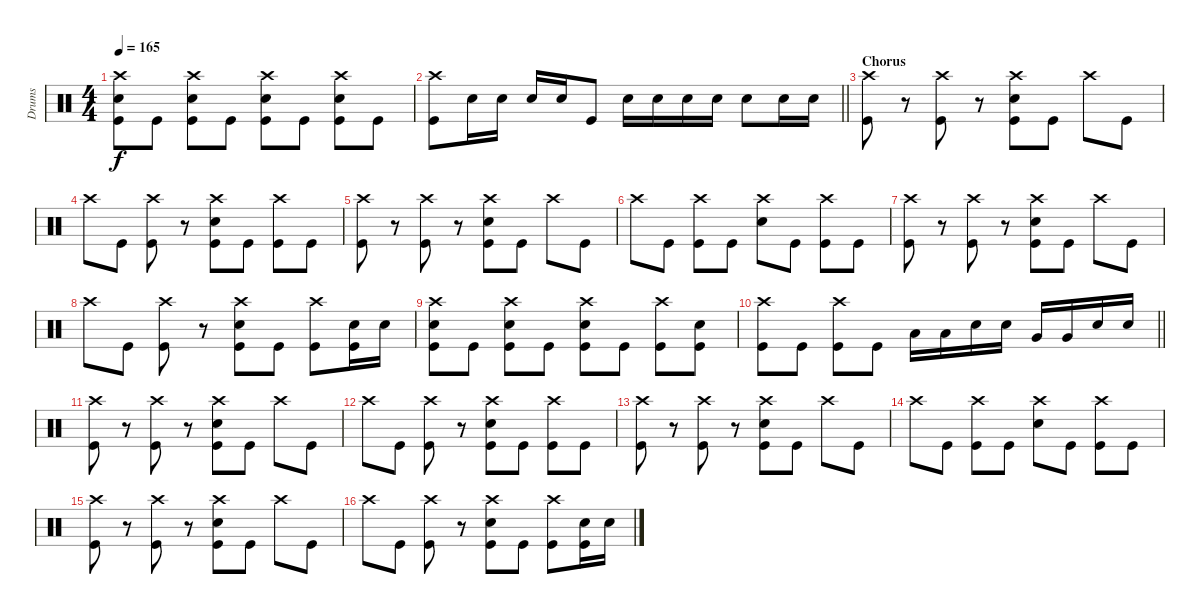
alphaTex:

\track ("Drums" "Drums") {instrument percussion}
\staff {score}
\articulation defaults
\ts (4 4)
\tempo 165
\clef neutral
\ks c
("Crash high (hit)" "Snare (hit) 2" "Kick (hit)").8{dy f} "Kick (hit)".8 ("Crash high (hit)" "Snare (hit) 2" "Kick (hit)").8 "Kick (hit)".8 ("Crash high (hit)" "Snare (hit) 2" "Kick (hit)").8 "Kick (hit)".8 ("Crash high (hit)" "Snare (hit) 2" "Kick (hit)").8 "Kick (hit)".8 |
\barLineRight lightlight
("Crash high (hit)" "Kick (hit)").8 "Snare (hit) 2".16 "Snare (hit) 2".16 "Snare (hit) 2".16 "Snare (hit) 2".16 "Kick (hit)".8 "Snare (hit) 2".16 "Snare (hit) 2".16 "Snare (hit) 2".16 "Snare (hit) 2".16 "Snare (hit) 2".8 "Snare (hit) 2".16 "Snare (hit) 2".16 |
\section ("" "Chorus")
("Crash high (hit)" "Kick (hit)").8 r.8 ("Crash high (hit)" "Kick (hit)").8 r.8 ("Crash high (hit)" "Snare (hit) 2" "Kick (hit)").8 "Kick (hit)".8 "Crash high (hit)".8 "Kick (hit)".8 |
"Crash high (hit)".8 "Kick (hit)".8 ("Crash high (hit)" "Kick (hit)").8 r.8 ("Crash high (hit)" "Snare (hit) 2" "Kick (hit)").8 "Kick (hit)".8 ("Crash high (hit)" "Kick (hit)").8 "Kick (hit)".8 |
("Crash high (hit)" "Kick (hit)").8 r.8 ("Crash high (hit)" "Kick (hit)").8 r.8 ("Crash high (hit)" "Snare (hit) 2" "Kick (hit)").8 "Kick (hit)".8 "Crash high (hit)".8 "Kick (hit)".8 |
"Crash high (hit)".8 "Kick (hit)".8 ("Crash high (hit)" "Kick (hit)").8 "Kick (hit)".8 ("Crash high (hit)" "Snare (hit) 2").8 "Kick (hit)".8 ("Crash high (hit)" "Kick (hit)").8 "Kick (hit)".8 |
("Crash high (hit)" "Kick (hit)").8 r.8 ("Crash high (hit)" "Kick (hit)").8 r.8 ("Crash high (hit)" "Snare (hit) 2" "Kick (hit)").8 "Kick (hit)".8 "Crash high (hit)".8 "Kick (hit)".8 |
"Crash high (hit)".8 "Kick (hit)".8 ("Crash high (hit)" "Kick (hit)").8 r.8 ("Crash high (hit)" "Snare (hit) 2" "Kick (hit)").8 "Kick (hit)".8 ("Crash high (hit)" "Kick (hit)").8 ("Snare (hit) 2" "Kick (hit)").16 "Snare (hit) 2".16 |
("Crash high (hit)" "Snare (hit) 2" "Kick (hit)").8 "Kick (hit)".8 ("Crash high (hit)" "Snare (hit) 2" "Kick (hit)").8 "Kick (hit)".8 ("Crash high (hit)" "Snare (hit) 2" "Kick (hit)").8 "Kick (hit)".8 ("Crash high (hit)" "Kick (hit)").8 ("Snare (hit) 2" "Kick (hit)").8 |
\barLineRight lightlight
("Crash high (hit)" "Kick (hit)").8 "Kick (hit)".8 ("Crash high (hit)" "Kick (hit)").8 "Kick (hit)".8 "Low Tom (hit)".16 "Low Tom (hit)".16 "Snare (hit) 2".16 "Snare (hit) 2".16 "Very Low Tom (hit)".16 "Very Low Tom (hit)".16 "Snare (hit) 2".16 "Snare (hit) 2".16 |
("Crash high (hit)" "Kick (hit)").8 r.8 ("Crash high (hit)" "Kick (hit)").8 r.8 ("Crash high (hit)" "Snare (hit) 2" "Kick (hit)").8 "Kick (hit)".8 "Crash high (hit)".8 "Kick (hit)".8 |
"Crash high (hit)".8 "Kick (hit)".8 ("Crash high (hit)" "Kick (hit)").8 r.8 ("Crash high (hit)" "Snare (hit) 2" "Kick (hit)").8 "Kick (hit)".8 ("Crash high (hit)" "Kick (hit)").8 "Kick (hit)".8 |
("Crash high (hit)" "Kick (hit)").8 r.8 ("Crash high (hit)" "Kick (hit)").8 r.8 ("Crash high (hit)" "Snare (hit) 2" "Kick (hit)").8 "Kick (hit)".8 "Crash high (hit)".8 "Kick (hit)".8 |
"Crash high (hit)".8 "Kick (hit)".8 ("Crash high (hit)" "Kick (hit)").8 "Kick (hit)".8 ("Crash high (hit)" "Snare (hit) 2").8 "Kick (hit)".8 ("Crash high (hit)" "Kick (hit)").8 "Kick (hit)".8 |
("Crash high (hit)" "Kick (hit)").8 r.8 ("Crash high (hit)" "Kick (hit)").8 r.8 ("Crash high (hit)" "Snare (hit) 2" "Kick (hit)").8 "Kick (hit)".8 "Crash high (hit)".8 "Kick (hit)".8 |
"Crash high (hit)".8 "Kick (hit)".8 ("Crash high (hit)" "Kick (hit)").8 r.8 ("Crash high (hit)" "Snare (hit) 2" "Kick (hit)").8 "Kick (hit)".8 ("Crash high (hit)" "Kick (hit)").8 ("Snare (hit) 2" "Kick (hit)").16 "Snare (hit) 2".16
